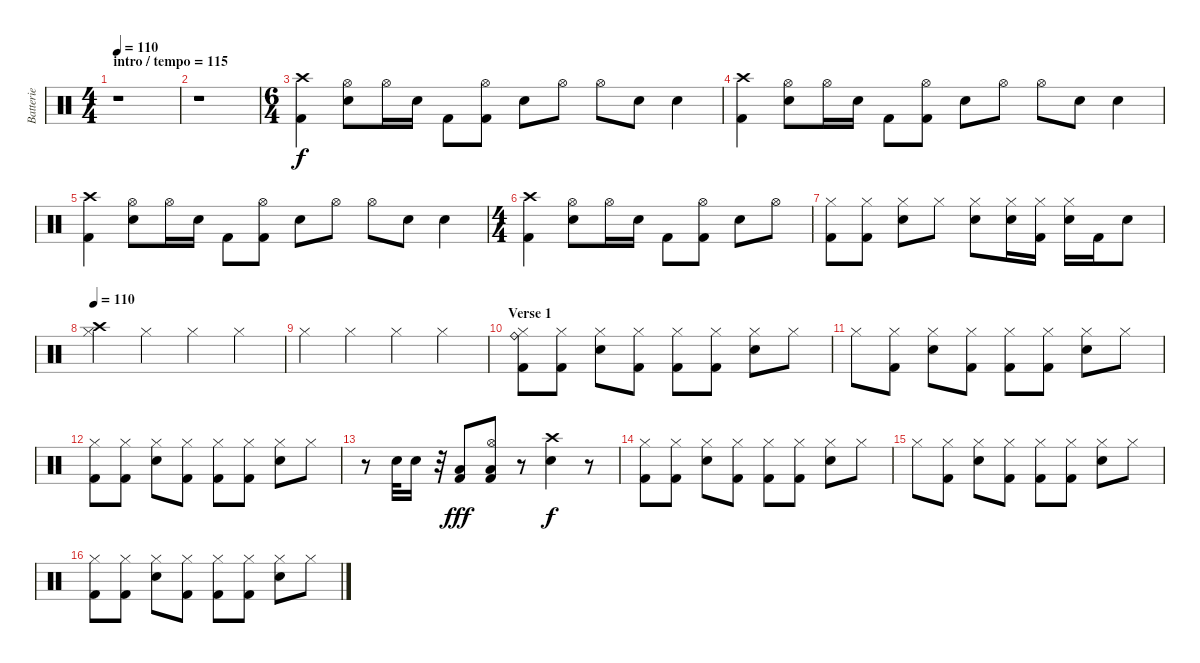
\track ("Batterie" "Batterie") {instrument percussion}
\staff {score}
\articulation defaults
\ts (4 4)
\section ("" "intro / tempo = 115")
\tempo 110
\tempo 115
\tempo 110
\clef neutral
\ks c
r.1{dy f} |
r.1 |
\ts (6 4)
("Crash high (hit)" "Kick (hit) 2").4 ("Hi-Hat (open)" "Electric Snare (hit)").8 "Hi-Hat (open)".16 "Electric Snare (hit)".16 "Kick (hit) 2".8 ("Hi-Hat (open)" "Kick (hit) 2").8 "Electric Snare (hit)".8 "Hi-Hat (open)".8 "Hi-Hat (open)".8 "Electric Snare (hit)".8 "Electric Snare (hit)".4 |
("Crash high (hit)" "Kick (hit) 2").4 ("Hi-Hat (open)" "Electric Snare (hit)").8 "Hi-Hat (open)".16 "Electric Snare (hit)".16 "Kick (hit) 2".8 ("Hi-Hat (open)" "Kick (hit) 2").8 "Electric Snare (hit)".8 "Hi-Hat (open)".8 "Hi-Hat (open)".8 "Electric Snare (hit)".8 "Electric Snare (hit)".4 |
("Crash high (hit)" "Kick (hit) 2").4 ("Hi-Hat (open)" "Electric Snare (hit)").8 "Hi-Hat (open)".16 "Electric Snare (hit)".16 "Kick (hit) 2".8 ("Hi-Hat (open)" "Kick (hit) 2").8 "Electric Snare (hit)".8 "Hi-Hat (open)".8 "Hi-Hat (open)".8 "Electric Snare (hit)".8 "Electric Snare (hit)".4 |
\ts (4 4)
("Crash high (hit)" "Kick (hit) 2").4 ("Hi-Hat (open)" "Electric Snare (hit)").8 "Hi-Hat (open)".16 "Electric Snare (hit)".16 "Kick (hit) 2".8 ("Hi-Hat (open)" "Kick (hit) 2").8 "Electric Snare (hit)".8 "Hi-Hat (open)".8 |
("Hi-Hat (closed)" "Kick (hit) 2").8 ("Hi-Hat (closed)" "Kick (hit) 2").8 ("Hi-Hat (closed)" "Electric Snare (hit)").8 "Hi-Hat (closed)".8 ("Hi-Hat (closed)" "Electric Snare (hit)").8 ("Hi-Hat (closed)" "Electric Snare (hit)").16 ("Hi-Hat (closed)" "Kick (hit) 2").16 ("Hi-Hat (closed)" "Electric Snare (hit)").16 "Kick (hit) 2".16 "Electric Snare (hit)".8 |
\tempo 110
("Hi-Hat (closed)" "Crash high (hit)").4 "Hi-Hat (closed)".4 "Hi-Hat (closed)".4 "Hi-Hat (closed)".4 |
"Hi-Hat (closed)".4 "Hi-Hat (closed)".4 "Hi-Hat (closed)".4 "Hi-Hat (closed)".4 |
\section ("" "Verse 1")
("Hi-Hat (closed)" "Ride (bell)" "Kick (hit) 2").8 ("Hi-Hat (closed)" "Kick (hit) 2").8 ("Hi-Hat (closed)" "Electric Snare (hit)").8 ("Hi-Hat (closed)" "Kick (hit) 2").8 ("Hi-Hat (closed)" "Kick (hit) 2").8 ("Hi-Hat (closed)" "Kick (hit) 2").8 ("Hi-Hat (closed)" "Electric Snare (hit)").8 "Hi-Hat (closed)".8 |
"Hi-Hat (closed)".8 ("Hi-Hat (closed)" "Kick (hit) 2").8 ("Hi-Hat (closed)" "Electric Snare (hit)").8 ("Hi-Hat (closed)" "Kick (hit) 2").8 ("Hi-Hat (closed)" "Kick (hit) 2").8 ("Hi-Hat (closed)" "Kick (hit) 2").8 ("Hi-Hat (closed)" "Electric Snare (hit)").8 "Hi-Hat (closed)".8 |
("Hi-Hat (closed)" "Kick (hit) 2").8 ("Hi-Hat (closed)" "Kick (hit) 2").8 ("Hi-Hat (closed)" "Electric Snare (hit)").8 ("Hi-Hat (closed)" "Kick (hit) 2").8 ("Hi-Hat (closed)" "Kick (hit) 2").8 ("Hi-Hat (closed)" "Kick (hit) 2").8 ("Hi-Hat (closed)" "Electric Snare (hit)").8 "Hi-Hat (closed)".8 |
r.8 "Electric Snare (hit)".32 "Electric Snare (hit)".16 r.32 ("Low Floor Tom (hit)" "Kick (hit) 2").8{dy fff} ("Hi-Hat (open)" "Low Floor Tom (hit)" "Kick (hit) 2").8 r.8 ("Crash high (hit)" "Electric Snare (hit)").4{dy f} r.8 |
("Hi-Hat (closed)" "Kick (hit) 2").8 ("Hi-Hat (closed)" "Kick (hit) 2").8 ("Hi-Hat (closed)" "Electric Snare (hit)").8 ("Hi-Hat (closed)" "Kick (hit) 2").8 ("Hi-Hat (closed)" "Kick (hit) 2").8 ("Hi-Hat (closed)" "Kick (hit) 2").8 ("Hi-Hat (closed)" "Electric Snare (hit)").8 "Hi-Hat (closed)".8 |
"Hi-Hat (closed)".8 ("Hi-Hat (closed)" "Kick (hit) 2").8 ("Hi-Hat (closed)" "Electric Snare (hit)").8 ("Hi-Hat (closed)" "Kick (hit) 2").8 ("Hi-Hat (closed)" "Kick (hit) 2").8 ("Hi-Hat (closed)" "Kick (hit) 2").8 ("Hi-Hat (closed)" "Electric Snare (hit)").8 "Hi-Hat (closed)".8 |
("Hi-Hat (closed)" "Kick (hit) 2").8 ("Hi-Hat (closed)" "Kick (hit) 2").8 ("Hi-Hat (closed)" "Electric Snare (hit)").8 ("Hi-Hat (closed)" "Kick (hit) 2").8 ("Hi-Hat (closed)" "Kick (hit) 2").8 ("Hi-Hat (closed)" "Kick (hit) 2").8 ("Hi-Hat (closed)" "Electric Snare (hit)").8 "Hi-Hat (closed)".8
